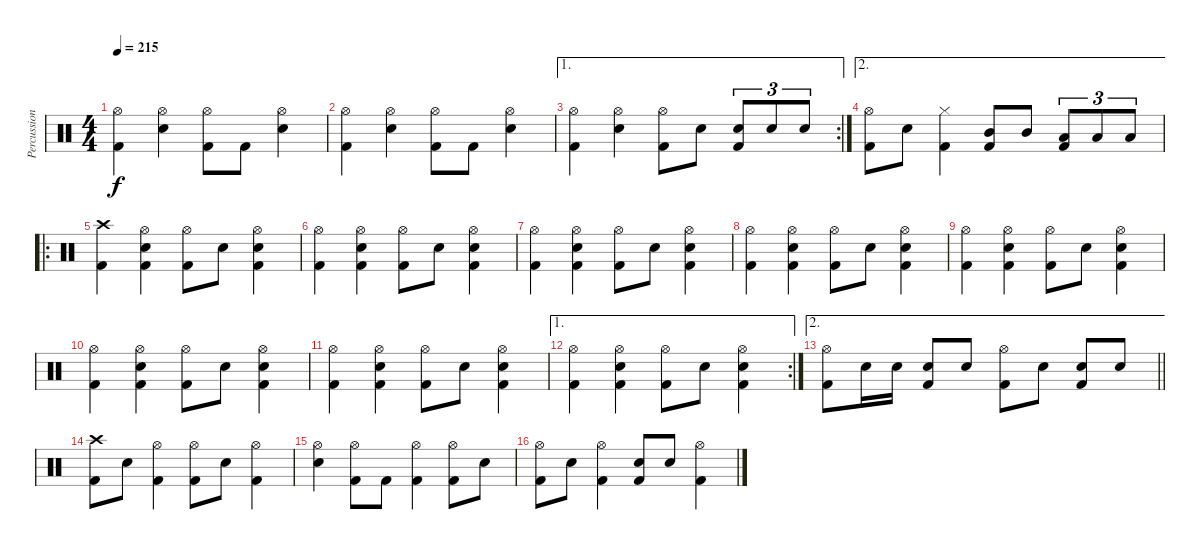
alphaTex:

\track ("Percussion" "Percussion") {instrument percussion}
\staff {score}
\articulation defaults
\ts (4 4)
\tempo 215
\clef neutral
\ks aminor
("Hi-Hat (open)" "Kick (hit) 2").4{dy f} ("Hi-Hat (open)" "Snare (hit) 2").4 ("Hi-Hat (open)" "Kick (hit) 2").8 "Kick (hit) 2".8 ("Hi-Hat (open)" "Snare (hit) 2").4 |
("Hi-Hat (open)" "Kick (hit) 2").4 ("Hi-Hat (open)" "Snare (hit) 2").4 ("Hi-Hat (open)" "Kick (hit) 2").8 "Kick (hit) 2".8 ("Hi-Hat (open)" "Snare (hit) 2").4 |
\ae 1
\rc 2
("Hi-Hat (open)" "Kick (hit) 2").4 ("Hi-Hat (open)" "Snare (hit) 2").4 ("Hi-Hat (open)" "Kick (hit) 2").8 "Snare (hit) 2".8 ("Kick (hit) 2" "Snare (hit) 2").8{tu (3 2)} "Snare (hit) 2".8{tu (3 2)} "Snare (hit) 2".8{tu (3 2)} |
\ae 2
("Hi-Hat (open)" "Kick (hit) 2").8 "Snare (hit) 2".8 ("Hi-Hat (closed)" "Kick (hit) 2").4 ("Mid Tom (hit)" "Kick (hit) 2").8 "Mid Tom (hit)".8 ("Low Tom (hit)" "Kick (hit) 2").8{tu (3 2)} "Low Tom (hit)".8{tu (3 2)} "Low Tom (hit)".8{tu (3 2)} |
\ro
("Crash high (hit)" "Kick (hit) 2").4 ("Hi-Hat (open)" "Snare (hit) 2" "Kick (hit) 2").4 ("Hi-Hat (open)" "Kick (hit) 2").8 "Snare (hit) 2".8 ("Hi-Hat (open)" "Snare (hit) 2" "Kick (hit) 2").4 |
("Hi-Hat (open)" "Kick (hit) 2").4 ("Hi-Hat (open)" "Snare (hit) 2" "Kick (hit) 2").4 ("Hi-Hat (open)" "Kick (hit) 2").8 "Snare (hit) 2".8 ("Hi-Hat (open)" "Snare (hit) 2" "Kick (hit) 2").4 |
("Hi-Hat (open)" "Kick (hit) 2").4 ("Hi-Hat (open)" "Snare (hit) 2" "Kick (hit) 2").4 ("Hi-Hat (open)" "Kick (hit) 2").8 "Snare (hit) 2".8 ("Hi-Hat (open)" "Snare (hit) 2" "Kick (hit) 2").4 |
("Hi-Hat (open)" "Kick (hit) 2").4 ("Hi-Hat (open)" "Snare (hit) 2" "Kick (hit) 2").4 ("Hi-Hat (open)" "Kick (hit) 2").8 "Snare (hit) 2".8 ("Hi-Hat (open)" "Snare (hit) 2" "Kick (hit) 2").4 |
("Hi-Hat (open)" "Kick (hit) 2").4 ("Hi-Hat (open)" "Snare (hit) 2" "Kick (hit) 2").4 ("Hi-Hat (open)" "Kick (hit) 2").8 "Snare (hit) 2".8 ("Hi-Hat (open)" "Snare (hit) 2" "Kick (hit) 2").4 |
("Hi-Hat (open)" "Kick (hit) 2").4 ("Hi-Hat (open)" "Snare (hit) 2" "Kick (hit) 2").4 ("Hi-Hat (open)" "Kick (hit) 2").8 "Snare (hit) 2".8 ("Hi-Hat (open)" "Snare (hit) 2" "Kick (hit) 2").4 |
("Hi-Hat (open)" "Kick (hit) 2").4 ("Hi-Hat (open)" "Snare (hit) 2" "Kick (hit) 2").4 ("Hi-Hat (open)" "Kick (hit) 2").8 "Snare (hit) 2".8 ("Hi-Hat (open)" "Snare (hit) 2" "Kick (hit) 2").4 |
\ae 1
\rc 2
("Hi-Hat (open)" "Kick (hit) 2").4 ("Hi-Hat (open)" "Snare (hit) 2" "Kick (hit) 2").4 ("Hi-Hat (open)" "Kick (hit) 2").8 "Snare (hit) 2".8 ("Hi-Hat (open)" "Snare (hit) 2" "Kick (hit) 2").4 |
\ae 2
\barLineRight lightlight
("Hi-Hat (open)" "Kick (hit) 2").8 "Snare (hit) 2".16 "Snare (hit) 2".16 ("Snare (hit) 2" "Kick (hit) 2").8 "Snare (hit) 2".8 ("Hi-Hat (open)" "Kick (hit) 2").8 "Snare (hit) 2".8 ("Snare (hit) 2" "Kick (hit) 2").8 "Snare (hit) 2".8 |
("Crash high (hit)" "Kick (hit) 2").8 "Snare (hit) 2".8 ("Hi-Hat (open)" "Kick (hit) 2").4 ("Hi-Hat (open)" "Kick (hit) 2").8 "Snare (hit) 2".8 ("Hi-Hat (open)" "Kick (hit) 2").4 |
("Hi-Hat (open)" "Snare (hit) 2").4 ("Hi-Hat (open)" "Kick (hit) 2").8 "Kick (hit) 2".8 ("Hi-Hat (open)" "Kick (hit) 2").4 ("Hi-Hat (open)" "Kick (hit) 2").8 "Snare (hit) 2".8 |
("Hi-Hat (open)" "Kick (hit) 2").8 "Snare (hit) 2".8 ("Hi-Hat (open)" "Kick (hit) 2").4 ("Snare (hit) 2" "Kick (hit) 2").8 "Snare (hit) 2".8 ("Hi-Hat (open)" "Kick (hit) 2").4
